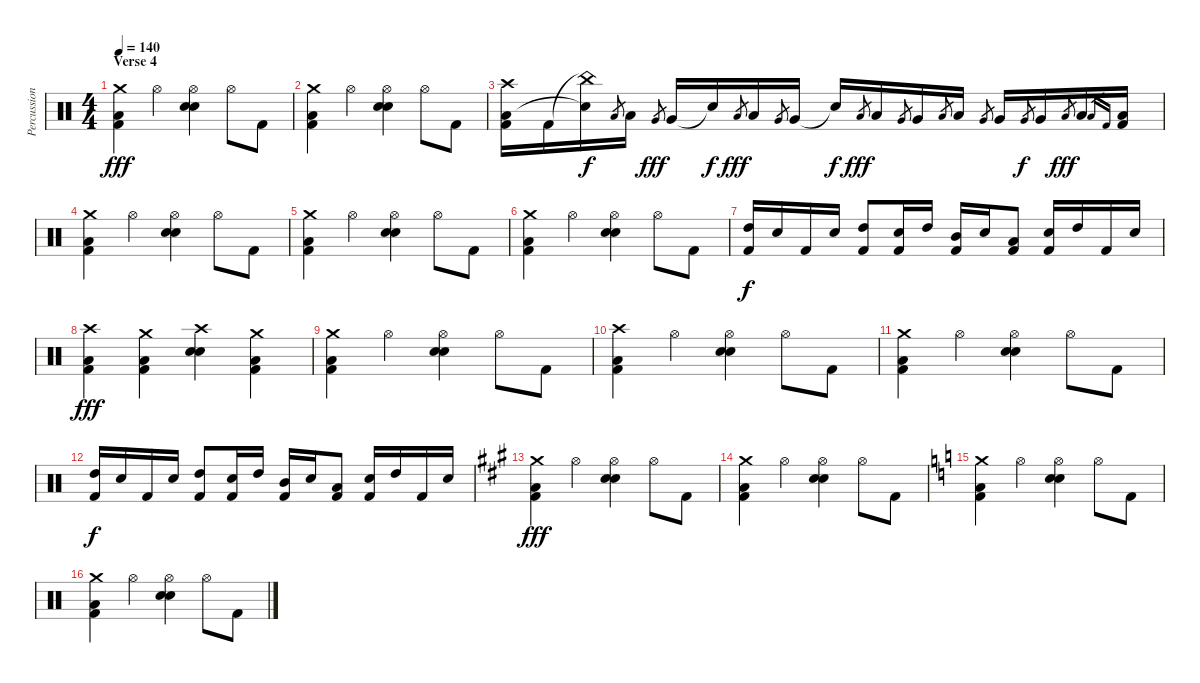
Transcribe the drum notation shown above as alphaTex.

\track ("Percussion" "Percussion") {instrument percussion}
\staff {score}
\articulation defaults
\ts (4 4)
\section ("" "Verse 4")
\tempo 140
\clef neutral
\ks c
("Crash medium (hit)" "Low Floor Tom (hit)" "Kick (hit) 2").4{dy fff} "Hi-Hat (open)".4 ("Hi-Hat (open)" "Snare (hit) 2" "Electric Snare (hit)").4 "Hi-Hat (open)".8 "Kick (hit) 2".8 |
("Crash medium (hit)" "Low Floor Tom (hit)" "Kick (hit) 2").4 "Hi-Hat (open)".4 ("Hi-Hat (open)" "Snare (hit) 2" "Electric Snare (hit)").4 "Hi-Hat (open)".8 "Kick (hit) 2".8 |
("Crash high (hit)" "Low Floor Tom (hit)" "Kick (hit) 2").16 "Kick (hit) 2".16 ("China (hit)"{t} "Snare (hit)"{t}).16{dy f} "Low Floor Tom (hit)".8{gr} "Low Floor Tom (hit)".16 "Very Low Tom (hit)".8{gr dy fff} "Very Low Tom (hit)".16 "Snare (hit)"{t}.16{dy f} "Low Floor Tom (hit)".8{gr dy fff} "Low Floor Tom (hit)".16 "Very Low Tom (hit)".8{gr} "Very Low Tom (hit)".16 "Snare (hit) 2"{t}.16{dy f} "Low Floor Tom (hit)".8{gr dy fff} "Low Floor Tom (hit)".16 "Very Low Tom (hit)".8{gr} "Very Low Tom (hit)".16 "Low Floor Tom (hit)".8{gr} "Low Floor Tom (hit)".16 "Very Low Tom (hit)".8{gr} "Very Low Tom (hit)".16 "Very Low Tom (hit)".8{gr dy f} "Very Low Tom (hit)".16 "Low Floor Tom (hit)".8{gr dy fff} "Low Floor Tom (hit)".16 "Low Floor Tom (hit)".16{gr} "Kick (hit) 2".16{gr} ("Low Floor Tom (hit)" "Kick (hit) 2").16 |
("Crash medium (hit)" "Low Floor Tom (hit)" "Kick (hit) 2").4 "Hi-Hat (open)".4 ("Hi-Hat (open)" "Snare (hit) 2" "Electric Snare (hit)").4 "Hi-Hat (open)".8 "Kick (hit) 2".8 |
("Crash medium (hit)" "Low Floor Tom (hit)" "Kick (hit) 2").4 "Hi-Hat (open)".4 ("Hi-Hat (open)" "Snare (hit) 2" "Electric Snare (hit)").4 "Hi-Hat (open)".8 "Kick (hit) 2".8 |
("Crash medium (hit)" "Low Floor Tom (hit)" "Kick (hit) 2").4 "Hi-Hat (open)".4 ("Hi-Hat (open)" "Snare (hit) 2" "Electric Snare (hit)").4 "Hi-Hat (open)".8 "Kick (hit) 2".8 |
("High Tom (hit)" "Kick (hit) 2").16{dy f} "Snare (hit) 2".16 "Kick (hit) 2".16 "Snare (hit) 2".16 ("High Tom (hit)" "Kick (hit) 2").8 ("Snare (hit) 2" "Kick (hit) 2").16 "High Tom (hit)".16 ("Mid Tom (hit)" "Kick (hit) 2").16 "Snare (hit) 2".16 ("Low Tom (hit)" "Kick (hit) 2").8 ("Snare (hit) 2" "Kick (hit) 2").16 "High Tom (hit)".16 "Kick (hit) 2".16 "Snare (hit) 2".16 |
("Crash high (hit)" "Low Floor Tom (hit)" "Kick (hit) 2").4{dy fff} ("Crash medium (hit)" "Low Floor Tom (hit)" "Kick (hit) 2").4 ("Crash high (hit)" "Snare (hit) 2" "Electric Snare (hit)").4 ("Crash medium (hit)" "Low Floor Tom (hit)" "Kick (hit) 2").4 |
("Crash medium (hit)" "Low Floor Tom (hit)" "Kick (hit) 2").4 "Hi-Hat (open)".4 ("Hi-Hat (open)" "Snare (hit) 2" "Electric Snare (hit)").4 "Hi-Hat (open)".8 "Kick (hit) 2".8 |
("Crash high (hit)" "Low Floor Tom (hit)" "Kick (hit) 2").4 "Hi-Hat (open)".4 ("Hi-Hat (open)" "Snare (hit) 2" "Electric Snare (hit)").4 "Hi-Hat (open)".8 "Kick (hit) 2".8 |
("Crash medium (hit)" "Low Floor Tom (hit)" "Kick (hit) 2").4 "Hi-Hat (open)".4 ("Hi-Hat (open)" "Snare (hit) 2" "Electric Snare (hit)").4 "Hi-Hat (open)".8 "Kick (hit) 2".8 |
("High Tom (hit)" "Kick (hit) 2").16{dy f} "Snare (hit) 2".16 "Kick (hit) 2".16 "Snare (hit) 2".16 ("High Tom (hit)" "Kick (hit) 2").8 ("Snare (hit) 2" "Kick (hit) 2").16 "High Tom (hit)".16 ("Mid Tom (hit)" "Kick (hit) 2").16 "Snare (hit) 2".16 ("Low Tom (hit)" "Kick (hit) 2").8 ("Snare (hit) 2" "Kick (hit) 2").16 "High Tom (hit)".16 "Kick (hit) 2".16 "Snare (hit) 2".16 |
\ks a
("Crash medium (hit)" "Low Floor Tom (hit)" "Kick (hit) 2").4{dy fff} "Hi-Hat (open)".4 ("Hi-Hat (open)" "Snare (hit) 2" "Electric Snare (hit)").4 "Hi-Hat (open)".8 "Kick (hit) 2".8 |
("Crash medium (hit)" "Low Floor Tom (hit)" "Kick (hit) 2").4 "Hi-Hat (open)".4 ("Hi-Hat (open)" "Snare (hit) 2" "Electric Snare (hit)").4 "Hi-Hat (open)".8 "Kick (hit) 2".8 |
\ks c
("Crash medium (hit)" "Low Floor Tom (hit)" "Kick (hit) 2").4 "Hi-Hat (open)".4 ("Hi-Hat (open)" "Snare (hit) 2" "Electric Snare (hit)").4 "Hi-Hat (open)".8 "Kick (hit) 2".8 |
("Crash medium (hit)" "Low Floor Tom (hit)" "Kick (hit) 2").4 "Hi-Hat (open)".4 ("Hi-Hat (open)" "Snare (hit) 2" "Electric Snare (hit)").4 "Hi-Hat (open)".8 "Kick (hit) 2".8
